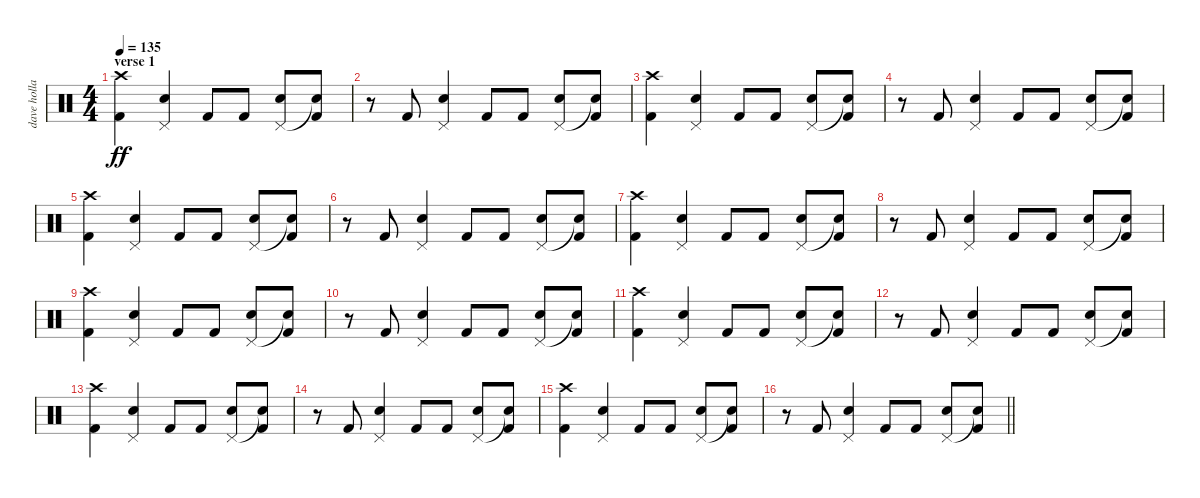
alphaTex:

\track ("dave holland" "dave holla") {instrument percussion}
\staff {score}
\articulation defaults
\ts (4 4)
\section ("" "verse 1")
\tempo 135
\clef neutral
\ks c
("Crash high (hit)" "Kick (hit) 2").4{dy ff} ("Pedal Hi-Hat (hit)" "Electric Snare (hit)").4 "Kick (hit) 2".8 "Kick (hit) 2".8 ("Pedal Hi-Hat (hit)" "Electric Snare (hit)").8 ("Snare (hit)"{t} "Kick (hit) 2").8 |
r.8 "Kick (hit) 2".8 ("Pedal Hi-Hat (hit)" "Electric Snare (hit)").4 "Kick (hit) 2".8 "Kick (hit) 2".8 ("Pedal Hi-Hat (hit)" "Electric Snare (hit)").8 ("Snare (hit)"{t} "Kick (hit) 2").8 |
("Crash high (hit)" "Kick (hit) 2").4 ("Pedal Hi-Hat (hit)" "Electric Snare (hit)").4 "Kick (hit) 2".8 "Kick (hit) 2".8 ("Pedal Hi-Hat (hit)" "Electric Snare (hit)").8 ("Snare (hit)"{t} "Kick (hit) 2").8 |
r.8 "Kick (hit) 2".8 ("Pedal Hi-Hat (hit)" "Electric Snare (hit)").4 "Kick (hit) 2".8 "Kick (hit) 2".8 ("Pedal Hi-Hat (hit)" "Electric Snare (hit)").8 ("Snare (hit)"{t} "Kick (hit) 2").8 |
("Crash high (hit)" "Kick (hit) 2").4 ("Pedal Hi-Hat (hit)" "Electric Snare (hit)").4 "Kick (hit) 2".8 "Kick (hit) 2".8 ("Pedal Hi-Hat (hit)" "Electric Snare (hit)").8 ("Snare (hit)"{t} "Kick (hit) 2").8 |
r.8 "Kick (hit) 2".8 ("Pedal Hi-Hat (hit)" "Electric Snare (hit)").4 "Kick (hit) 2".8 "Kick (hit) 2".8 ("Pedal Hi-Hat (hit)" "Electric Snare (hit)").8 ("Snare (hit)"{t} "Kick (hit) 2").8 |
("Crash high (hit)" "Kick (hit) 2").4 ("Pedal Hi-Hat (hit)" "Electric Snare (hit)").4 "Kick (hit) 2".8 "Kick (hit) 2".8 ("Pedal Hi-Hat (hit)" "Electric Snare (hit)").8 ("Snare (hit)"{t} "Kick (hit) 2").8 |
r.8 "Kick (hit) 2".8 ("Pedal Hi-Hat (hit)" "Electric Snare (hit)").4 "Kick (hit) 2".8 "Kick (hit) 2".8 ("Pedal Hi-Hat (hit)" "Electric Snare (hit)").8 ("Snare (hit)"{t} "Kick (hit) 2").8 |
("Crash high (hit)" "Kick (hit) 2").4 ("Pedal Hi-Hat (hit)" "Electric Snare (hit)").4 "Kick (hit) 2".8 "Kick (hit) 2".8 ("Pedal Hi-Hat (hit)" "Electric Snare (hit)").8 ("Snare (hit)"{t} "Kick (hit) 2").8 |
r.8 "Kick (hit) 2".8 ("Pedal Hi-Hat (hit)" "Electric Snare (hit)").4 "Kick (hit) 2".8 "Kick (hit) 2".8 ("Pedal Hi-Hat (hit)" "Electric Snare (hit)").8 ("Snare (hit)"{t} "Kick (hit) 2").8 |
("Crash high (hit)" "Kick (hit) 2").4 ("Pedal Hi-Hat (hit)" "Electric Snare (hit)").4 "Kick (hit) 2".8 "Kick (hit) 2".8 ("Pedal Hi-Hat (hit)" "Electric Snare (hit)").8 ("Snare (hit)"{t} "Kick (hit) 2").8 |
r.8 "Kick (hit) 2".8 ("Pedal Hi-Hat (hit)" "Electric Snare (hit)").4 "Kick (hit) 2".8 "Kick (hit) 2".8 ("Pedal Hi-Hat (hit)" "Electric Snare (hit)").8 ("Snare (hit)"{t} "Kick (hit) 2").8 |
("Crash high (hit)" "Kick (hit) 2").4 ("Pedal Hi-Hat (hit)" "Electric Snare (hit)").4 "Kick (hit) 2".8 "Kick (hit) 2".8 ("Pedal Hi-Hat (hit)" "Electric Snare (hit)").8 ("Snare (hit)"{t} "Kick (hit) 2").8 |
r.8 "Kick (hit) 2".8 ("Pedal Hi-Hat (hit)" "Electric Snare (hit)").4 "Kick (hit) 2".8 "Kick (hit) 2".8 ("Pedal Hi-Hat (hit)" "Electric Snare (hit)").8 ("Snare (hit)"{t} "Kick (hit) 2").8 |
("Crash high (hit)" "Kick (hit) 2").4 ("Pedal Hi-Hat (hit)" "Electric Snare (hit)").4 "Kick (hit) 2".8 "Kick (hit) 2".8 ("Pedal Hi-Hat (hit)" "Electric Snare (hit)").8 ("Snare (hit)"{t} "Kick (hit) 2").8 |
\barLineRight lightlight
r.8 "Kick (hit) 2".8 ("Pedal Hi-Hat (hit)" "Electric Snare (hit)").4 "Kick (hit) 2".8 "Kick (hit) 2".8 ("Pedal Hi-Hat (hit)" "Electric Snare (hit)").8 ("Snare (hit)"{t} "Kick (hit) 2").8
